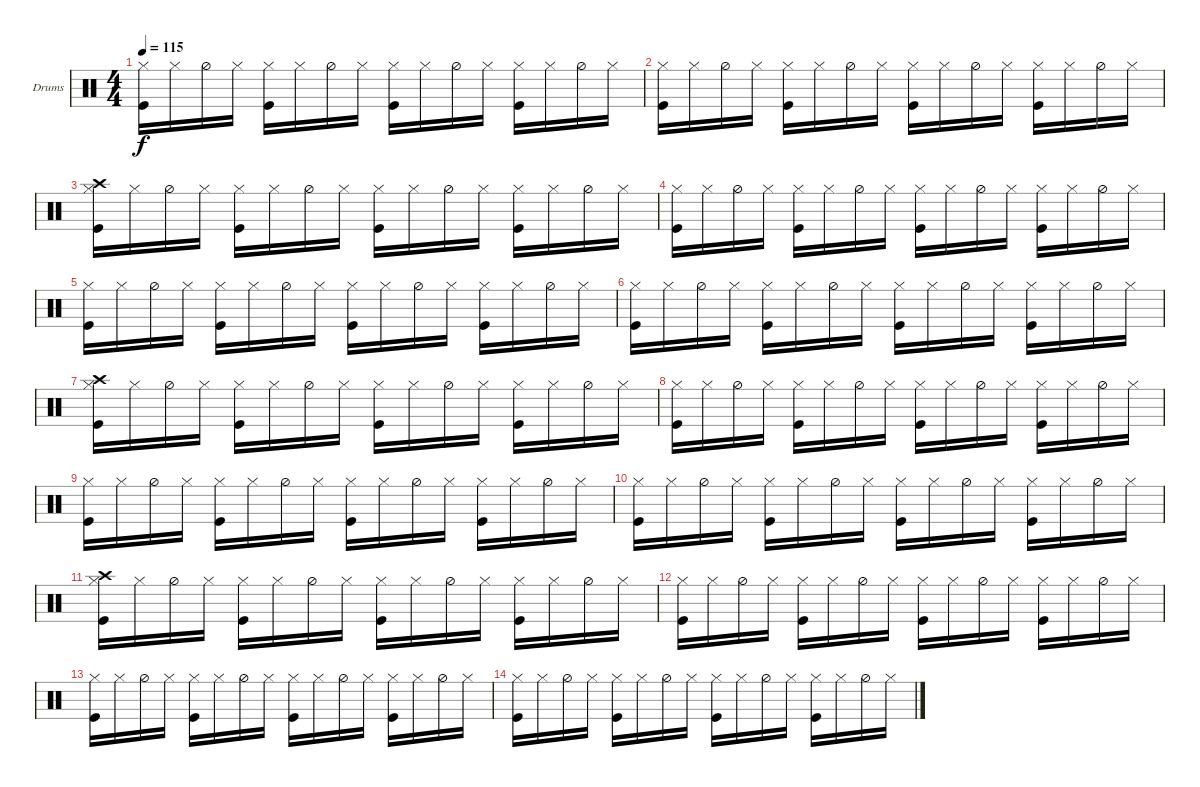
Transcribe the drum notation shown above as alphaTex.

\defaultSystemsLayout 4
\bracketExtendMode groupsimilarinstruments
\firstSystemTrackNameOrientation horizontal
\otherSystemsTrackNameOrientation horizontal
\track ("Drumkit" "Drums") {instrument percussion}
\staff {score}
\articulation defaults
\ts (4 4)
\tempo 115
\clef neutral
\ks c
("Hi-Hat (closed)" "Kick (hit)").16{dy f} "Hi-Hat (closed)".16 "Hi-Hat (half)".16 "Hi-Hat (closed)".16 ("Hi-Hat (closed)" "Kick (hit)").16 "Hi-Hat (closed)".16 "Hi-Hat (half)".16 "Hi-Hat (closed)".16 ("Hi-Hat (closed)" "Kick (hit)").16 "Hi-Hat (closed)".16 "Hi-Hat (half)".16 "Hi-Hat (closed)".16 ("Hi-Hat (closed)" "Kick (hit)").16 "Hi-Hat (closed)".16 "Hi-Hat (half)".16 "Hi-Hat (closed)".16 |
("Hi-Hat (closed)" "Kick (hit)").16 "Hi-Hat (closed)".16 "Hi-Hat (half)".16 "Hi-Hat (closed)".16 ("Hi-Hat (closed)" "Kick (hit)").16 "Hi-Hat (closed)".16 "Hi-Hat (half)".16 "Hi-Hat (closed)".16 ("Hi-Hat (closed)" "Kick (hit)").16 "Hi-Hat (closed)".16 "Hi-Hat (half)".16 "Hi-Hat (closed)".16 ("Hi-Hat (closed)" "Kick (hit)").16 "Hi-Hat (closed)".16 "Hi-Hat (half)".16 "Hi-Hat (closed)".16 |
("Hi-Hat (closed)" "Kick (hit)" "Crash high (hit)").16 "Hi-Hat (closed)".16 "Hi-Hat (half)".16 "Hi-Hat (closed)".16 ("Hi-Hat (closed)" "Kick (hit)").16 "Hi-Hat (closed)".16 "Hi-Hat (half)".16 "Hi-Hat (closed)".16 ("Hi-Hat (closed)" "Kick (hit)").16 "Hi-Hat (closed)".16 "Hi-Hat (half)".16 "Hi-Hat (closed)".16 ("Hi-Hat (closed)" "Kick (hit)").16 "Hi-Hat (closed)".16 "Hi-Hat (half)".16 "Hi-Hat (closed)".16 |
("Hi-Hat (closed)" "Kick (hit)").16 "Hi-Hat (closed)".16 "Hi-Hat (half)".16 "Hi-Hat (closed)".16 ("Hi-Hat (closed)" "Kick (hit)").16 "Hi-Hat (closed)".16 "Hi-Hat (half)".16 "Hi-Hat (closed)".16 ("Hi-Hat (closed)" "Kick (hit)").16 "Hi-Hat (closed)".16 "Hi-Hat (half)".16 "Hi-Hat (closed)".16 ("Hi-Hat (closed)" "Kick (hit)").16 "Hi-Hat (closed)".16 "Hi-Hat (half)".16 "Hi-Hat (closed)".16 |
("Hi-Hat (closed)" "Kick (hit)").16 "Hi-Hat (closed)".16 "Hi-Hat (half)".16 "Hi-Hat (closed)".16 ("Hi-Hat (closed)" "Kick (hit)").16 "Hi-Hat (closed)".16 "Hi-Hat (half)".16 "Hi-Hat (closed)".16 ("Hi-Hat (closed)" "Kick (hit)").16 "Hi-Hat (closed)".16 "Hi-Hat (half)".16 "Hi-Hat (closed)".16 ("Hi-Hat (closed)" "Kick (hit)").16 "Hi-Hat (closed)".16 "Hi-Hat (half)".16 "Hi-Hat (closed)".16 |
("Hi-Hat (closed)" "Kick (hit)").16 "Hi-Hat (closed)".16 "Hi-Hat (half)".16 "Hi-Hat (closed)".16 ("Hi-Hat (closed)" "Kick (hit)").16 "Hi-Hat (closed)".16 "Hi-Hat (half)".16 "Hi-Hat (closed)".16 ("Hi-Hat (closed)" "Kick (hit)").16 "Hi-Hat (closed)".16 "Hi-Hat (half)".16 "Hi-Hat (closed)".16 ("Hi-Hat (closed)" "Kick (hit)").16 "Hi-Hat (closed)".16 "Hi-Hat (half)".16 "Hi-Hat (closed)".16 |
("Hi-Hat (closed)" "Kick (hit)" "Crash high (hit)").16 "Hi-Hat (closed)".16 "Hi-Hat (half)".16 "Hi-Hat (closed)".16 ("Hi-Hat (closed)" "Kick (hit)").16 "Hi-Hat (closed)".16 "Hi-Hat (half)".16 "Hi-Hat (closed)".16 ("Hi-Hat (closed)" "Kick (hit)").16 "Hi-Hat (closed)".16 "Hi-Hat (half)".16 "Hi-Hat (closed)".16 ("Hi-Hat (closed)" "Kick (hit)").16 "Hi-Hat (closed)".16 "Hi-Hat (half)".16 "Hi-Hat (closed)".16 |
("Hi-Hat (closed)" "Kick (hit)").16 "Hi-Hat (closed)".16 "Hi-Hat (half)".16 "Hi-Hat (closed)".16 ("Hi-Hat (closed)" "Kick (hit)").16 "Hi-Hat (closed)".16 "Hi-Hat (half)".16 "Hi-Hat (closed)".16 ("Hi-Hat (closed)" "Kick (hit)").16 "Hi-Hat (closed)".16 "Hi-Hat (half)".16 "Hi-Hat (closed)".16 ("Hi-Hat (closed)" "Kick (hit)").16 "Hi-Hat (closed)".16 "Hi-Hat (half)".16 "Hi-Hat (closed)".16 |
("Hi-Hat (closed)" "Kick (hit)").16 "Hi-Hat (closed)".16 "Hi-Hat (half)".16 "Hi-Hat (closed)".16 ("Hi-Hat (closed)" "Kick (hit)").16 "Hi-Hat (closed)".16 "Hi-Hat (half)".16 "Hi-Hat (closed)".16 ("Hi-Hat (closed)" "Kick (hit)").16 "Hi-Hat (closed)".16 "Hi-Hat (half)".16 "Hi-Hat (closed)".16 ("Hi-Hat (closed)" "Kick (hit)").16 "Hi-Hat (closed)".16 "Hi-Hat (half)".16 "Hi-Hat (closed)".16 |
("Hi-Hat (closed)" "Kick (hit)").16 "Hi-Hat (closed)".16 "Hi-Hat (half)".16 "Hi-Hat (closed)".16 ("Hi-Hat (closed)" "Kick (hit)").16 "Hi-Hat (closed)".16 "Hi-Hat (half)".16 "Hi-Hat (closed)".16 ("Hi-Hat (closed)" "Kick (hit)").16 "Hi-Hat (closed)".16 "Hi-Hat (half)".16 "Hi-Hat (closed)".16 ("Hi-Hat (closed)" "Kick (hit)").16 "Hi-Hat (closed)".16 "Hi-Hat (half)".16 "Hi-Hat (closed)".16 |
("Hi-Hat (closed)" "Kick (hit)" "Crash high (hit)").16 "Hi-Hat (closed)".16 "Hi-Hat (half)".16 "Hi-Hat (closed)".16 ("Hi-Hat (closed)" "Kick (hit)").16 "Hi-Hat (closed)".16 "Hi-Hat (half)".16 "Hi-Hat (closed)".16 ("Hi-Hat (closed)" "Kick (hit)").16 "Hi-Hat (closed)".16 "Hi-Hat (half)".16 "Hi-Hat (closed)".16 ("Hi-Hat (closed)" "Kick (hit)").16 "Hi-Hat (closed)".16 "Hi-Hat (half)".16 "Hi-Hat (closed)".16 |
("Hi-Hat (closed)" "Kick (hit)").16 "Hi-Hat (closed)".16 "Hi-Hat (half)".16 "Hi-Hat (closed)".16 ("Hi-Hat (closed)" "Kick (hit)").16 "Hi-Hat (closed)".16 "Hi-Hat (half)".16 "Hi-Hat (closed)".16 ("Hi-Hat (closed)" "Kick (hit)").16 "Hi-Hat (closed)".16 "Hi-Hat (half)".16 "Hi-Hat (closed)".16 ("Hi-Hat (closed)" "Kick (hit)").16 "Hi-Hat (closed)".16 "Hi-Hat (half)".16 "Hi-Hat (closed)".16 |
("Hi-Hat (closed)" "Kick (hit)").16 "Hi-Hat (closed)".16 "Hi-Hat (half)".16 "Hi-Hat (closed)".16 ("Hi-Hat (closed)" "Kick (hit)").16 "Hi-Hat (closed)".16 "Hi-Hat (half)".16 "Hi-Hat (closed)".16 ("Hi-Hat (closed)" "Kick (hit)").16 "Hi-Hat (closed)".16 "Hi-Hat (half)".16 "Hi-Hat (closed)".16 ("Hi-Hat (closed)" "Kick (hit)").16 "Hi-Hat (closed)".16 "Hi-Hat (half)".16 "Hi-Hat (closed)".16 |
("Hi-Hat (closed)" "Kick (hit)").16 "Hi-Hat (closed)".16 "Hi-Hat (half)".16 "Hi-Hat (closed)".16 ("Hi-Hat (closed)" "Kick (hit)").16 "Hi-Hat (closed)".16 "Hi-Hat (half)".16 "Hi-Hat (closed)".16 ("Hi-Hat (closed)" "Kick (hit)").16 "Hi-Hat (closed)".16 "Hi-Hat (half)".16 "Hi-Hat (closed)".16 ("Hi-Hat (closed)" "Kick (hit)").16 "Hi-Hat (closed)".16 "Hi-Hat (half)".16 "Hi-Hat (closed)".16
